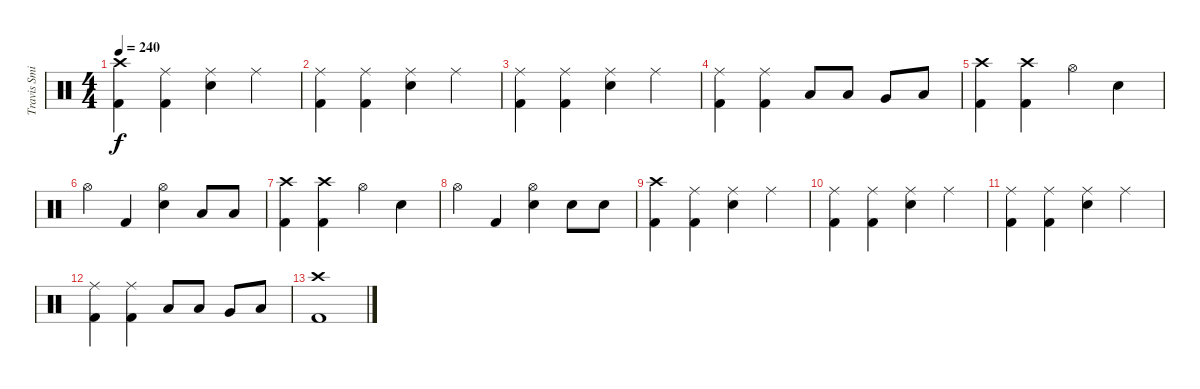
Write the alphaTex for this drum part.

\track ("Travis Smith" "Travis Smi") {instrument percussion}
\staff {score}
\articulation defaults
\ts (4 4)
\tempo 240
\clef neutral
\ks c
("Kick (hit) 2" "Crash high (hit)").4{dy f} ("Kick (hit) 2" "Ride (middle)").4 ("Snare (hit) 2" "Ride (middle)").4 "Ride (middle)".4 |
("Kick (hit) 2" "Ride (middle)").4 ("Kick (hit) 2" "Ride (middle)").4 ("Snare (hit) 2" "Ride (middle)").4 "Ride (middle)".4 |
("Kick (hit) 2" "Ride (middle)").4 ("Kick (hit) 2" "Ride (middle)").4 ("Snare (hit) 2" "Ride (middle)").4 "Ride (middle)".4 |
("Kick (hit) 2" "Ride (middle)").4 ("Kick (hit) 2" "Ride (middle)").4 "Low Tom (hit)".8 "Low Tom (hit)".8 "Very Low Tom (hit)".8 "Low Floor Tom (hit)".8 |
("Kick (hit) 2" "Crash high (hit)").4 ("Kick (hit) 2" "Crash high (hit)").4 "Hi-Hat (open)".4 "Snare (hit) 2".4 |
"Hi-Hat (open)".4 "Kick (hit) 2".4 ("Snare (hit) 2" "Hi-Hat (open)").4 "Low Tom (hit)".8 "Low Tom (hit)".8 |
("Kick (hit) 2" "Crash high (hit)").4 ("Kick (hit) 2" "Crash high (hit)").4 "Hi-Hat (open)".4 "Snare (hit) 2".4 |
"Hi-Hat (open)".4 "Kick (hit) 2".4 ("Snare (hit) 2" "Hi-Hat (open)").4 "Snare (hit) 2".8 "Snare (hit) 2".8 |
("Kick (hit) 2" "Crash high (hit)").4 ("Kick (hit) 2" "Ride (middle)").4 ("Snare (hit) 2" "Ride (middle)").4 "Ride (middle)".4 |
("Kick (hit) 2" "Ride (middle)").4 ("Kick (hit) 2" "Ride (middle)").4 ("Snare (hit) 2" "Ride (middle)").4 "Ride (middle)".4 |
("Kick (hit) 2" "Ride (middle)").4 ("Kick (hit) 2" "Ride (middle)").4 ("Snare (hit) 2" "Ride (middle)").4 "Ride (middle)".4 |
("Kick (hit) 2" "Ride (middle)").4 ("Kick (hit) 2" "Ride (middle)").4 "Low Tom (hit)".8 "Low Tom (hit)".8 "Very Low Tom (hit)".8 "Low Floor Tom (hit)".8 |
("Kick (hit) 2" "Crash high (hit)").1
